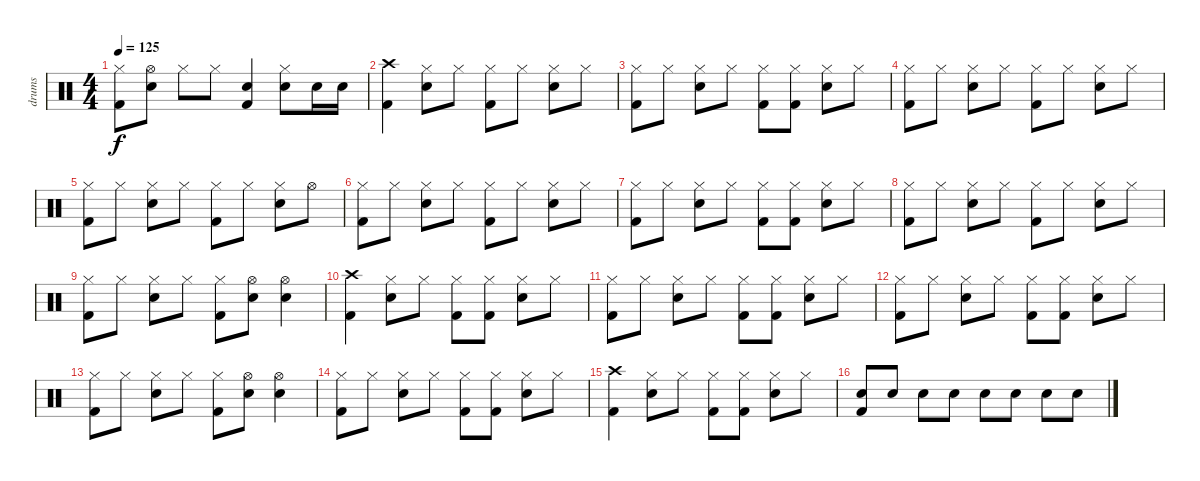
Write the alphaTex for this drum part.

\track ("drums" "drums") {instrument percussion}
\staff {score}
\articulation defaults
\ts (4 4)
\tempo 125
\clef neutral
\ks c
("Hi-Hat (closed)" "Kick (hit) 2").8{dy f} ("Hi-Hat (open)" "Electric Snare (hit)").8 "Hi-Hat (closed)".8 "Hi-Hat (closed)".8 ("Electric Snare (hit)" "Kick (hit) 2").4 ("Hi-Hat (closed)" "Electric Snare (hit)").8 "Electric Snare (hit)".16 "Electric Snare (hit)".16 |
("Crash high (hit)" "Kick (hit) 2").4 ("Hi-Hat (closed)" "Electric Snare (hit)").8 "Hi-Hat (closed)".8 ("Hi-Hat (closed)" "Kick (hit) 2").8 "Hi-Hat (closed)".8 ("Hi-Hat (closed)" "Electric Snare (hit)").8 "Hi-Hat (closed)".8 |
("Hi-Hat (closed)" "Kick (hit) 2").8 "Hi-Hat (closed)".8 ("Hi-Hat (closed)" "Electric Snare (hit)").8 "Hi-Hat (closed)".8 ("Hi-Hat (closed)" "Kick (hit) 2").8 ("Hi-Hat (closed)" "Kick (hit) 2").8 ("Hi-Hat (closed)" "Electric Snare (hit)").8 "Hi-Hat (closed)".8 |
("Hi-Hat (closed)" "Kick (hit) 2").8 "Hi-Hat (closed)".8 ("Hi-Hat (closed)" "Electric Snare (hit)").8 "Hi-Hat (closed)".8 ("Hi-Hat (closed)" "Kick (hit) 2").8 "Hi-Hat (closed)".8 ("Hi-Hat (closed)" "Electric Snare (hit)").8 "Hi-Hat (closed)".8 |
("Hi-Hat (closed)" "Kick (hit) 2").8 "Hi-Hat (closed)".8 ("Hi-Hat (closed)" "Electric Snare (hit)").8 "Hi-Hat (closed)".8 ("Hi-Hat (closed)" "Kick (hit) 2").8 "Hi-Hat (closed)".8 ("Hi-Hat (closed)" "Electric Snare (hit)").8 "Hi-Hat (open)".8 |
("Hi-Hat (closed)" "Kick (hit) 2").8 "Hi-Hat (closed)".8 ("Hi-Hat (closed)" "Electric Snare (hit)").8 "Hi-Hat (closed)".8 ("Hi-Hat (closed)" "Kick (hit) 2").8 "Hi-Hat (closed)".8 ("Hi-Hat (closed)" "Electric Snare (hit)").8 "Hi-Hat (closed)".8 |
("Hi-Hat (closed)" "Kick (hit) 2").8 "Hi-Hat (closed)".8 ("Hi-Hat (closed)" "Electric Snare (hit)").8 "Hi-Hat (closed)".8 ("Hi-Hat (closed)" "Kick (hit) 2").8 ("Hi-Hat (closed)" "Kick (hit) 2").8 ("Hi-Hat (closed)" "Electric Snare (hit)").8 "Hi-Hat (closed)".8 |
("Hi-Hat (closed)" "Kick (hit) 2").8 "Hi-Hat (closed)".8 ("Hi-Hat (closed)" "Electric Snare (hit)").8 "Hi-Hat (closed)".8 ("Hi-Hat (closed)" "Kick (hit) 2").8 "Hi-Hat (closed)".8 ("Hi-Hat (closed)" "Electric Snare (hit)").8 "Hi-Hat (closed)".8 |
("Hi-Hat (closed)" "Kick (hit) 2").8 "Hi-Hat (closed)".8 ("Hi-Hat (closed)" "Electric Snare (hit)").8 "Hi-Hat (closed)".8 ("Hi-Hat (closed)" "Kick (hit) 2").8 ("Hi-Hat (open)" "Electric Snare (hit)").8 ("Hi-Hat (open)" "Electric Snare (hit)").4 |
("Crash high (hit)" "Kick (hit) 2").4 ("Hi-Hat (closed)" "Electric Snare (hit)").8 "Hi-Hat (closed)".8 ("Hi-Hat (closed)" "Kick (hit) 2").8 ("Hi-Hat (closed)" "Kick (hit) 2").8 ("Hi-Hat (closed)" "Electric Snare (hit)").8 "Hi-Hat (closed)".8 |
("Hi-Hat (closed)" "Kick (hit) 2").8 "Hi-Hat (closed)".8 ("Hi-Hat (closed)" "Electric Snare (hit)").8 "Hi-Hat (closed)".8 ("Hi-Hat (closed)" "Kick (hit) 2").8 ("Hi-Hat (closed)" "Kick (hit) 2").8 ("Hi-Hat (closed)" "Electric Snare (hit)").8 "Hi-Hat (closed)".8 |
("Hi-Hat (closed)" "Kick (hit) 2").8 "Hi-Hat (closed)".8 ("Hi-Hat (closed)" "Electric Snare (hit)").8 "Hi-Hat (closed)".8 ("Hi-Hat (closed)" "Kick (hit) 2").8 ("Hi-Hat (closed)" "Kick (hit) 2").8 ("Hi-Hat (closed)" "Electric Snare (hit)").8 "Hi-Hat (closed)".8 |
("Hi-Hat (closed)" "Kick (hit) 2").8 "Hi-Hat (closed)".8 ("Hi-Hat (closed)" "Electric Snare (hit)").8 "Hi-Hat (closed)".8 ("Hi-Hat (closed)" "Kick (hit) 2").8 ("Hi-Hat (open)" "Electric Snare (hit)").8 ("Hi-Hat (open)" "Electric Snare (hit)").4 |
("Hi-Hat (closed)" "Kick (hit) 2").8 "Hi-Hat (closed)".8 ("Hi-Hat (closed)" "Electric Snare (hit)").8 "Hi-Hat (closed)".8 ("Hi-Hat (closed)" "Kick (hit) 2").8 ("Hi-Hat (closed)" "Kick (hit) 2").8 ("Hi-Hat (closed)" "Electric Snare (hit)").8 "Hi-Hat (closed)".8 |
("Crash high (hit)" "Kick (hit) 2").4 ("Hi-Hat (closed)" "Electric Snare (hit)").8 "Hi-Hat (closed)".8 ("Hi-Hat (closed)" "Kick (hit) 2").8 ("Hi-Hat (closed)" "Kick (hit) 2").8 ("Hi-Hat (closed)" "Electric Snare (hit)").8 "Hi-Hat (closed)".8 |
("Electric Snare (hit)" "Kick (hit) 2").8 "Electric Snare (hit)".8 "Electric Snare (hit)".8 "Electric Snare (hit)".8 "Electric Snare (hit)".8 "Electric Snare (hit)".8 "Electric Snare (hit)".8 "Electric Snare (hit)".8
